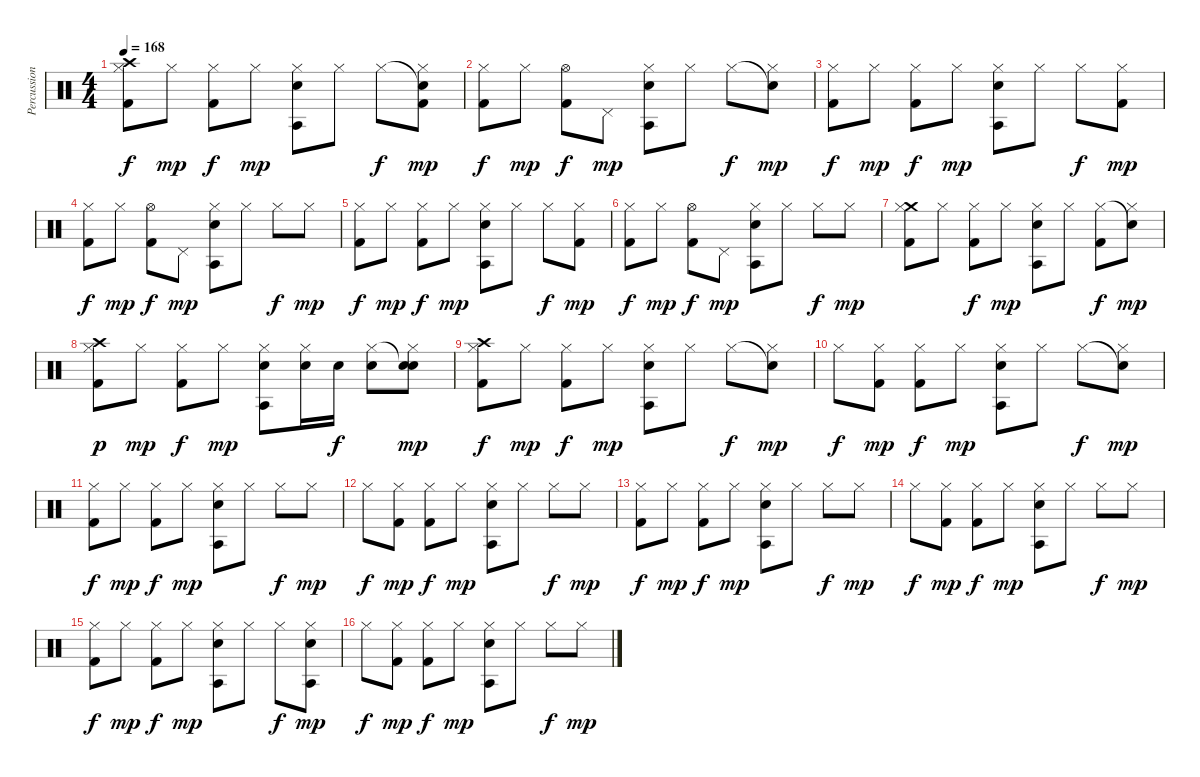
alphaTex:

\track ("Percussion" "Percussion") {instrument percussion}
\staff {score}
\articulation defaults
\ts (4 4)
\tempo 168
\clef neutral
\ks c
("Crash high (hit)" "Hi-Hat (closed)" "Kick (hit) 2").8{dy f} "Hi-Hat (closed)".8{dy mp} ("Hi-Hat (closed)" "Kick (hit) 2").8{dy f} "Hi-Hat (closed)".8{dy mp} ("Hi-Hat (closed)" "Agogo tow (hit)" "Electric Snare (hit)").8 "Hi-Hat (closed)".8 "Hi-Hat (closed)".8{dy f} ("Snare (hit)"{t} "Hi-Hat (closed)" "Kick (hit) 2").8{dy mp} |
("Hi-Hat (closed)" "Kick (hit) 2").8{dy f} "Hi-Hat (closed)".8{dy mp} ("Hi-Hat (open)" "Kick (hit) 2").8{dy f} "Pedal Hi-Hat (hit)".8{dy mp} ("Hi-Hat (closed)" "Agogo tow (hit)" "Electric Snare (hit)").8 "Hi-Hat (closed)".8 "Hi-Hat (closed)".8{dy f} ("Snare (hit)"{t} "Hi-Hat (closed)").8{dy mp} |
("Hi-Hat (closed)" "Kick (hit) 2").8{dy f} "Hi-Hat (closed)".8{dy mp} ("Hi-Hat (closed)" "Kick (hit) 2").8{dy f} "Hi-Hat (closed)".8{dy mp} ("Hi-Hat (closed)" "Agogo tow (hit)" "Electric Snare (hit)").8 "Hi-Hat (closed)".8 "Hi-Hat (closed)".8{dy f} ("Hi-Hat (closed)" "Kick (hit) 2").8{dy mp} |
("Hi-Hat (closed)" "Kick (hit) 2").8{dy f} "Hi-Hat (closed)".8{dy mp} ("Hi-Hat (open)" "Kick (hit) 2").8{dy f} "Pedal Hi-Hat (hit)".8{dy mp} ("Hi-Hat (closed)" "Agogo tow (hit)" "Electric Snare (hit)").8 "Hi-Hat (closed)".8 "Hi-Hat (closed)".8{dy f} "Hi-Hat (closed)".8{dy mp} |
("Hi-Hat (closed)" "Kick (hit) 2").8{dy f} "Hi-Hat (closed)".8{dy mp} ("Hi-Hat (closed)" "Kick (hit) 2").8{dy f} "Hi-Hat (closed)".8{dy mp} ("Hi-Hat (closed)" "Agogo tow (hit)" "Electric Snare (hit)").8 "Hi-Hat (closed)".8 "Hi-Hat (closed)".8{dy f} ("Hi-Hat (closed)" "Kick (hit) 2").8{dy mp} |
("Hi-Hat (closed)" "Kick (hit) 2").8{dy f} "Hi-Hat (closed)".8{dy mp} ("Hi-Hat (open)" "Kick (hit) 2").8{dy f} "Pedal Hi-Hat (hit)".8{dy mp} ("Hi-Hat (closed)" "Agogo tow (hit)" "Electric Snare (hit)").8 "Hi-Hat (closed)".8 "Hi-Hat (closed)".8{dy f} "Hi-Hat (closed)".8{dy mp} |
("Crash medium (hit)" "Hi-Hat (closed)" "Kick (hit) 2").8 "Hi-Hat (closed)".8 ("Hi-Hat (closed)" "Kick (hit) 2").8{dy f} "Hi-Hat (closed)".8{dy mp} ("Hi-Hat (closed)" "Agogo tow (hit)" "Electric Snare (hit)").8 "Hi-Hat (closed)".8 ("Hi-Hat (closed)" "Kick (hit) 2").8{dy f} ("Snare (hit)"{t} "Hi-Hat (closed)").8{dy mp} |
("Crash high (hit)" "Hi-Hat (closed)" "Kick (hit) 2").8{dy p} "Hi-Hat (closed)".8{dy mp} ("Hi-Hat (closed)" "Kick (hit) 2").8{dy f} "Hi-Hat (closed)".8{dy mp} ("Hi-Hat (closed)" "Agogo tow (hit)" "Electric Snare (hit)").8 ("Hi-Hat (closed)" "Electric Snare (hit)").16 "Electric Snare (hit)".16{dy f} ("Hi-Hat (closed)" "Electric Snare (hit)").8 ("Snare (hit)"{t} "Hi-Hat (closed)" "Electric Snare (hit)").8{dy mp} |
("Crash high (hit)" "Hi-Hat (closed)" "Kick (hit) 2").8{dy f} "Hi-Hat (closed)".8{dy mp} ("Hi-Hat (closed)" "Kick (hit) 2").8{dy f} "Hi-Hat (closed)".8{dy mp} ("Hi-Hat (closed)" "Agogo tow (hit)" "Electric Snare (hit)").8 "Hi-Hat (closed)".8 "Hi-Hat (closed)".8{dy f} ("Snare (hit)"{t} "Hi-Hat (closed)").8{dy mp} |
"Hi-Hat (closed)".8{dy f} ("Hi-Hat (closed)" "Kick (hit) 2").8{dy mp} ("Hi-Hat (closed)" "Kick (hit) 2").8{dy f} "Hi-Hat (closed)".8{dy mp} ("Hi-Hat (closed)" "Agogo tow (hit)" "Electric Snare (hit)").8 "Hi-Hat (closed)".8 "Hi-Hat (closed)".8{dy f} ("Snare (hit)"{t} "Hi-Hat (closed)").8{dy mp} |
("Hi-Hat (closed)" "Kick (hit) 2").8{dy f} "Hi-Hat (closed)".8{dy mp} ("Hi-Hat (closed)" "Kick (hit) 2").8{dy f} "Hi-Hat (closed)".8{dy mp} ("Hi-Hat (closed)" "Agogo tow (hit)" "Electric Snare (hit)").8 "Hi-Hat (closed)".8 "Hi-Hat (closed)".8{dy f} "Hi-Hat (closed)".8{dy mp} |
"Hi-Hat (closed)".8{dy f} ("Hi-Hat (closed)" "Kick (hit) 2").8{dy mp} ("Hi-Hat (closed)" "Kick (hit) 2").8{dy f} "Hi-Hat (closed)".8{dy mp} ("Hi-Hat (closed)" "Agogo tow (hit)" "Electric Snare (hit)").8 "Hi-Hat (closed)".8 "Hi-Hat (closed)".8{dy f} "Hi-Hat (closed)".8{dy mp} |
("Hi-Hat (closed)" "Kick (hit) 2").8{dy f} "Hi-Hat (closed)".8{dy mp} ("Hi-Hat (closed)" "Kick (hit) 2").8{dy f} "Hi-Hat (closed)".8{dy mp} ("Hi-Hat (closed)" "Agogo tow (hit)" "Electric Snare (hit)").8 "Hi-Hat (closed)".8 "Hi-Hat (closed)".8{dy f} "Hi-Hat (closed)".8{dy mp} |
"Hi-Hat (closed)".8{dy f} ("Hi-Hat (closed)" "Kick (hit) 2").8{dy mp} ("Hi-Hat (closed)" "Kick (hit) 2").8{dy f} "Hi-Hat (closed)".8{dy mp} ("Hi-Hat (closed)" "Agogo tow (hit)" "Electric Snare (hit)").8 "Hi-Hat (closed)".8 "Hi-Hat (closed)".8{dy f} "Hi-Hat (closed)".8{dy mp} |
("Hi-Hat (closed)" "Kick (hit) 2").8{dy f} "Hi-Hat (closed)".8{dy mp} ("Hi-Hat (closed)" "Kick (hit) 2").8{dy f} "Hi-Hat (closed)".8{dy mp} ("Hi-Hat (closed)" "Agogo tow (hit)" "Electric Snare (hit)").8 "Hi-Hat (closed)".8 "Hi-Hat (closed)".8{dy f} ("Hi-Hat (closed)" "Agogo tow (hit)" "Electric Snare (hit)").8{dy mp} |
"Hi-Hat (closed)".8{dy f} ("Hi-Hat (closed)" "Kick (hit) 2").8{dy mp} ("Hi-Hat (closed)" "Kick (hit) 2").8{dy f} "Hi-Hat (closed)".8{dy mp} ("Hi-Hat (closed)" "Agogo tow (hit)" "Electric Snare (hit)").8 "Hi-Hat (closed)".8 "Hi-Hat (closed)".8{dy f} "Hi-Hat (closed)".8{dy mp}
